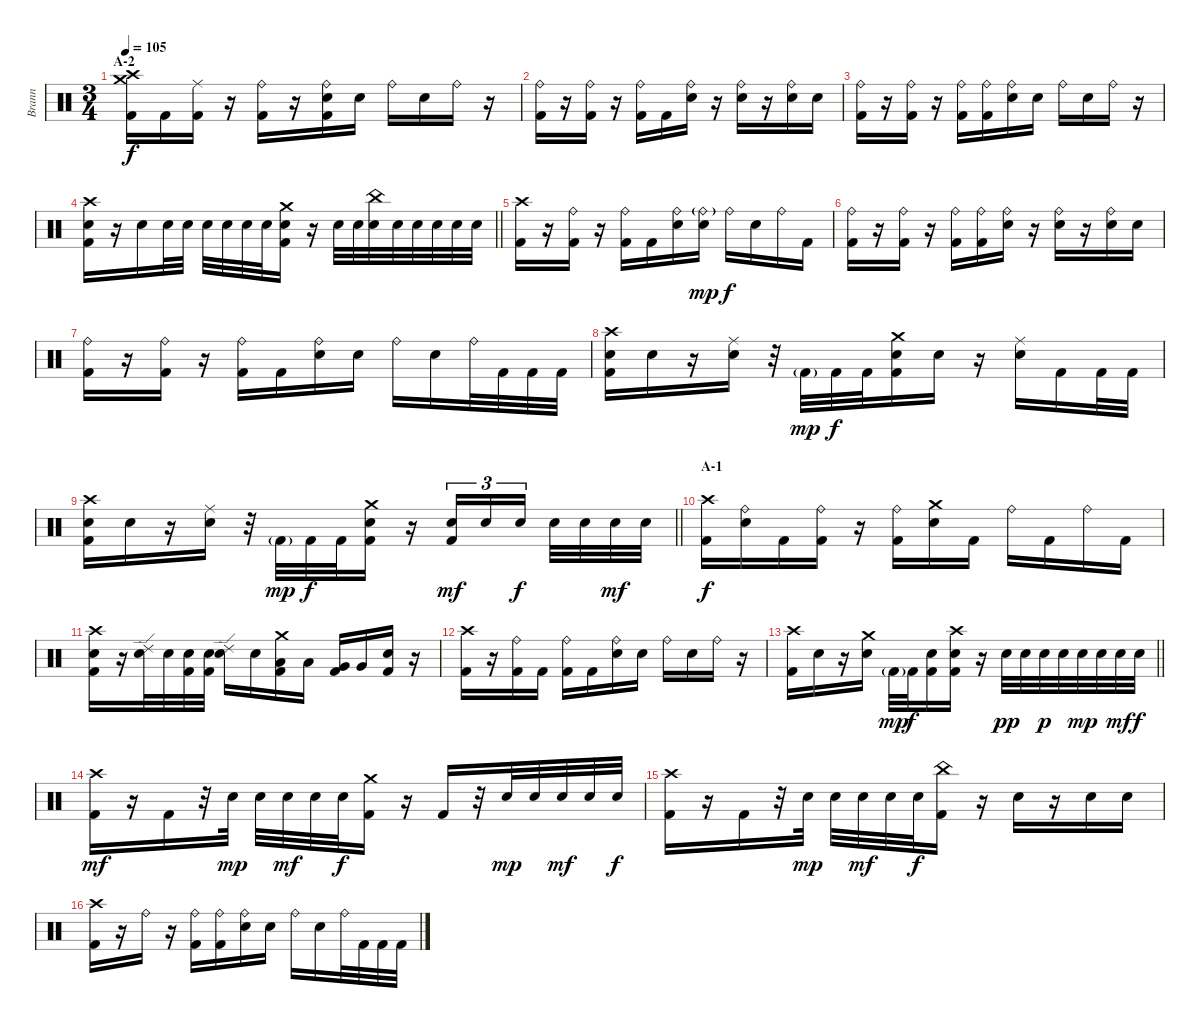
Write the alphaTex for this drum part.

\track ("Brann" "Brann") {instrument percussion}
\staff {score}
\articulation defaults
\ts (3 4)
\section ("" "A-2")
\tempo 105
\clef neutral
\ks c
("Crash high (hit)" "Crash medium (hit)" "Kick (hit) 2").16{dy f} "Kick (hit) 2".16 ("Ride (middle)" "Kick (hit) 2").16 r.16 ("Ride (bell)" "Kick (hit) 2").16 r.16 ("Ride (bell)" "Snare (hit) 2" "Kick (hit) 2").16 "Snare (hit) 2".16 "Ride (bell)".16 "Snare (hit) 2".16 "Ride (bell)".16 r.16 |
("Ride (bell)" "Kick (hit) 2").16 r.16 ("Ride (bell)" "Kick (hit) 2").16 r.16 ("Ride (bell)" "Kick (hit) 2").16 "Kick (hit) 2".16 ("Ride (bell)" "Snare (hit) 2").16 r.16 ("Ride (bell)" "Snare (hit) 2").16 r.16 ("Ride (bell)" "Snare (hit) 2").16 "Snare (hit) 2".16 |
("Ride (bell)" "Kick (hit) 2").16 r.16 ("Ride (bell)" "Kick (hit) 2").16 r.16 ("Ride (bell)" "Kick (hit) 2").16 ("Ride (bell)" "Kick (hit) 2").16 ("Ride (bell)" "Snare (hit) 2").16 "Snare (hit) 2".16 "Ride (bell)".16 "Snare (hit) 2".16 "Ride (bell)".16 r.16 |
\barLineRight lightlight
("Crash high (hit)" "Snare (hit) 2" "Kick (hit) 2").16 r.16 "Electric Snare (hit)".16 "Snare (hit) 2".32 "Snare (hit) 2".32 "Snare (hit) 2".32 "Snare (hit) 2".32 "Snare (hit) 2".32 "Snare (hit) 2".32 ("Crash medium (hit)" "Snare (hit) 2" "Kick (hit) 2").16 r.16 "Electric Snare (hit)".32 "Electric Snare (hit)".32 ("China (hit)" "Electric Snare (hit)").32 "Snare (hit) 2".32 "Snare (hit) 2".32 "Snare (hit) 2".32 "Snare (hit) 2".32 "Snare (hit) 2".32 |
("Crash high (hit)" "Kick (hit) 2").16 r.16 ("Ride (bell)" "Kick (hit) 2").16 r.16 ("Ride (bell)" "Kick (hit) 2").16 "Kick (hit) 2".16 ("Ride (bell)" "Snare (hit) 2").16 ("Ride (bell)"{g} "Snare (hit) 2").16{dy mp} "Ride (bell)".16{dy f} "Snare (hit) 2".16 "Ride (bell)".16 "Kick (hit) 2".16 |
("Ride (bell)" "Kick (hit) 2").16 r.16 ("Ride (bell)" "Kick (hit) 2").16 r.16 ("Ride (bell)" "Kick (hit) 2").16 ("Ride (bell)" "Kick (hit) 2").16 ("Ride (bell)" "Snare (hit) 2").16 r.16 ("Ride (bell)" "Snare (hit) 2").16 r.16 ("Ride (bell)" "Snare (hit) 2").16 "Snare (hit) 2".16 |
("Ride (bell)" "Kick (hit) 2").16 r.16 ("Ride (bell)" "Kick (hit) 2").16 r.16 ("Ride (bell)" "Kick (hit) 2").16 "Kick (hit) 2".16 ("Ride (bell)" "Snare (hit) 2").16 "Snare (hit) 2".16 "Ride (bell)".16 "Snare (hit) 2".16 "Ride (bell)".32 "Kick (hit) 2".32 "Kick (hit) 2".32 "Kick (hit) 2".32 |
("Crash high (hit)" "Snare (hit) 2" "Kick (hit) 2").16 "Snare (hit) 2".16 r.16 ("Ride (middle)" "Snare (hit) 2").16 r.32 "Kick (hit) 2"{g}.32{dy mp} "Kick (hit) 2".32{dy f} "Kick (hit) 2".32 ("Crash medium (hit)" "Snare (hit) 2" "Kick (hit) 2").16 "Snare (hit) 2".16 r.16 ("Ride (middle)" "Snare (hit) 2").16 "Kick (hit) 2".16 "Kick (hit) 2".32 "Kick (hit) 2".32 |
\barLineRight lightlight
("Crash high (hit)" "Snare (hit) 2" "Kick (hit) 2").16 "Snare (hit) 2".16 r.16 ("Ride (middle)" "Snare (hit) 2").16 r.32 "Kick (hit) 2"{g}.32{dy mp} "Kick (hit) 2".32{dy f} "Kick (hit) 2".32 ("Crash medium (hit)" "Snare (hit) 2" "Kick (hit) 2").16 r.16 ("Snare (hit) 2" "Kick (hit) 2").16{tu (3 2) dy mf} "Snare (hit) 2".16{tu (3 2)} "Snare (hit) 2".16{tu (3 2) dy f} "Snare (hit) 2".32 "Snare (hit) 2".32 "Snare (hit) 2".32{dy mf} "Snare (hit) 2".32 |
\section ("" "A-1")
("Crash high (hit)" "Kick (hit) 2").16{dy f} ("Ride (bell)" "Snare (hit) 2").16 "Kick (hit) 2".16 ("Ride (bell)" "Kick (hit) 2").16 r.16 ("Ride (bell)" "Kick (hit) 2").16 ("Crash medium (hit)" "Snare (hit) 2").16 "Kick (hit) 2".16 "Ride (bell)".16 "Kick (hit) 2".16 "Ride (bell)".16 "Kick (hit) 2".16 |
("Crash high (hit)" "Snare (hit) 2" "Kick (hit) 2").16 r.16 ("Ride (edge) 2" "Snare (hit) 2").32 "Snare (hit) 2".32 ("Snare (hit) 2" "Kick (hit) 2").32 ("Snare (hit) 2" "Kick (hit) 2").32 ("Ride (edge) 2" "Snare (hit) 2").16 "Snare (hit) 2".16 ("Crash medium (hit)" "Low Tom (hit)" "Kick (hit) 2").16 "Low Tom (hit)".16 ("Very Low Tom (hit)" "Kick (hit) 2").16 "Very Low Tom (hit)".16 ("Snare (hit) 2" "Kick (hit) 2").16 r.16 |
("Crash high (hit)" "Kick (hit) 2").16 r.16 ("Ride (bell)" "Kick (hit) 2").16 "Kick (hit) 2".16 ("Ride (bell)" "Kick (hit) 2").16 "Kick (hit) 2".16 ("Ride (bell)" "Snare (hit) 2").16 "Snare (hit) 2".16 "Ride (bell)".16 "Snare (hit) 2".16 "Ride (bell)".16 r.16 |
\barLineRight lightlight
("Crash high (hit)" "Kick (hit) 2").16 "Snare (hit) 2".16 r.16 ("Crash medium (hit)" "Snare (hit) 2").16 "Kick (hit) 2"{g}.32{dy mp} "Kick (hit) 2".32{dy f} ("Snare (hit) 2" "Kick (hit) 2").16 ("Crash high (hit)" "Snare (hit) 2" "Kick (hit) 2").16 r.16 "Snare (hit) 2".32{dy pp} "Snare (hit) 2".32 "Snare (hit) 2".32{dy p} "Snare (hit) 2".32 "Snare (hit) 2".32{dy mp} "Snare (hit) 2".32 "Snare (hit) 2".32{dy mf} "Snare (hit) 2".32{dy f} |
("Crash high (hit)" "Kick (hit) 2").16{dy mf} r.16 "Kick (hit) 2".16 r.32 "Snare (hit) 2".32{dy mp} "Snare (hit) 2".32 "Snare (hit) 2".32{dy mf} "Snare (hit) 2".32 "Snare (hit) 2".32{dy f} ("Crash medium (hit)" "Kick (hit) 2").16 r.16 "Kick (hit) 2".16 r.32 "Snare (hit) 2".32{dy mp} "Snare (hit) 2".32 "Snare (hit) 2".32{dy mf} "Snare (hit) 2".32 "Snare (hit) 2".32{dy f} |
("Crash high (hit)" "Kick (hit) 2").16 r.16 "Kick (hit) 2".16 r.32 "Snare (hit) 2".32{dy mp} "Snare (hit) 2".32 "Snare (hit) 2".32{dy mf} "Snare (hit) 2".32 "Snare (hit) 2".32{dy f} ("China (hit)" "Kick (hit) 2").16 r.16 "Snare (hit) 2".16 r.16 "Snare (hit) 2".16 "Snare (hit) 2".16 |
("Crash high (hit)" "Kick (hit) 2").16 r.16 "Ride (bell)".16 r.16 ("Ride (bell)" "Kick (hit) 2").16 ("Ride (bell)" "Kick (hit) 2").16 ("Ride (bell)" "Snare (hit) 2").16 "Snare (hit) 2".16 "Ride (bell)".16 "Snare (hit) 2".16 "Ride (bell)".32 "Kick (hit) 2".32 "Kick (hit) 2".32 "Kick (hit) 2".32
